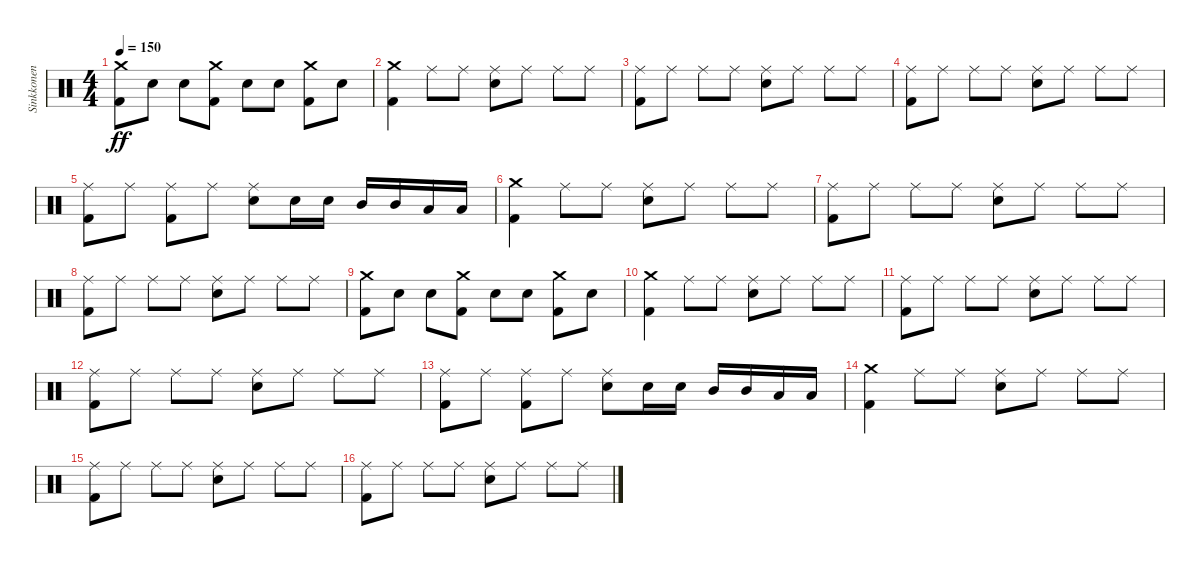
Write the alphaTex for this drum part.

\track ("Sinkkonen" "Sinkkonen") {instrument percussion}
\staff {score}
\articulation defaults
\ts (4 4)
\tempo 150
\clef neutral
\ks c
("Crash medium (hit)" "Kick (hit) 2").8{dy ff} "Snare (hit) 2".8 "Snare (hit) 2".8 ("Crash medium (hit)" "Kick (hit) 2").8 "Snare (hit) 2".8 "Snare (hit) 2".8 ("Crash medium (hit)" "Kick (hit) 2").8 "Snare (hit) 2".8 |
("Crash medium (hit)" "Kick (hit) 2").4 "Ride (middle)".8 "Ride (middle)".8 ("Ride (middle)" "Snare (hit) 2").8 "Ride (middle)".8 "Ride (middle)".8 "Ride (middle)".8 |
("Ride (middle)" "Kick (hit) 2").8 "Ride (middle)".8 "Ride (middle)".8 "Ride (middle)".8 ("Ride (middle)" "Snare (hit) 2").8 "Ride (middle)".8 "Ride (middle)".8 "Ride (middle)".8 |
("Ride (middle)" "Kick (hit) 2").8 "Ride (middle)".8 "Ride (middle)".8 "Ride (middle)".8 ("Ride (middle)" "Snare (hit) 2").8 "Ride (middle)".8 "Ride (middle)".8 "Ride (middle)".8 |
("Ride (middle)" "Kick (hit) 2").8 "Ride (middle)".8 ("Ride (middle)" "Kick (hit) 2").8 "Ride (middle)".8 ("Ride (middle)" "Snare (hit) 2").8 "Snare (hit) 2".16 "Snare (hit) 2".16 "Mid Tom (hit)".16 "Mid Tom (hit)".16 "Low Tom (hit)".16 "Low Tom (hit)".16 |
("Crash medium (hit)" "Kick (hit) 2").4 "Ride (middle)".8 "Ride (middle)".8 ("Ride (middle)" "Snare (hit) 2").8 "Ride (middle)".8 "Ride (middle)".8 "Ride (middle)".8 |
("Ride (middle)" "Kick (hit) 2").8 "Ride (middle)".8 "Ride (middle)".8 "Ride (middle)".8 ("Ride (middle)" "Snare (hit) 2").8 "Ride (middle)".8 "Ride (middle)".8 "Ride (middle)".8 |
("Ride (middle)" "Kick (hit) 2").8 "Ride (middle)".8 "Ride (middle)".8 "Ride (middle)".8 ("Ride (middle)" "Snare (hit) 2").8 "Ride (middle)".8 "Ride (middle)".8 "Ride (middle)".8 |
("Crash medium (hit)" "Kick (hit) 2").8 "Snare (hit) 2".8 "Snare (hit) 2".8 ("Crash medium (hit)" "Kick (hit) 2").8 "Snare (hit) 2".8 "Snare (hit) 2".8 ("Crash medium (hit)" "Kick (hit) 2").8 "Snare (hit) 2".8 |
("Crash medium (hit)" "Kick (hit) 2").4 "Ride (middle)".8 "Ride (middle)".8 ("Ride (middle)" "Snare (hit) 2").8 "Ride (middle)".8 "Ride (middle)".8 "Ride (middle)".8 |
("Ride (middle)" "Kick (hit) 2").8 "Ride (middle)".8 "Ride (middle)".8 "Ride (middle)".8 ("Ride (middle)" "Snare (hit) 2").8 "Ride (middle)".8 "Ride (middle)".8 "Ride (middle)".8 |
("Ride (middle)" "Kick (hit) 2").8 "Ride (middle)".8 "Ride (middle)".8 "Ride (middle)".8 ("Ride (middle)" "Snare (hit) 2").8 "Ride (middle)".8 "Ride (middle)".8 "Ride (middle)".8 |
("Ride (middle)" "Kick (hit) 2").8 "Ride (middle)".8 ("Ride (middle)" "Kick (hit) 2").8 "Ride (middle)".8 ("Ride (middle)" "Snare (hit) 2").8 "Snare (hit) 2".16 "Snare (hit) 2".16 "Mid Tom (hit)".16 "Mid Tom (hit)".16 "Low Tom (hit)".16 "Low Tom (hit)".16 |
("Crash medium (hit)" "Kick (hit) 2").4 "Ride (middle)".8 "Ride (middle)".8 ("Ride (middle)" "Snare (hit) 2").8 "Ride (middle)".8 "Ride (middle)".8 "Ride (middle)".8 |
("Ride (middle)" "Kick (hit) 2").8 "Ride (middle)".8 "Ride (middle)".8 "Ride (middle)".8 ("Ride (middle)" "Snare (hit) 2").8 "Ride (middle)".8 "Ride (middle)".8 "Ride (middle)".8 |
("Ride (middle)" "Kick (hit) 2").8 "Ride (middle)".8 "Ride (middle)".8 "Ride (middle)".8 ("Ride (middle)" "Snare (hit) 2").8 "Ride (middle)".8 "Ride (middle)".8 "Ride (middle)".8
